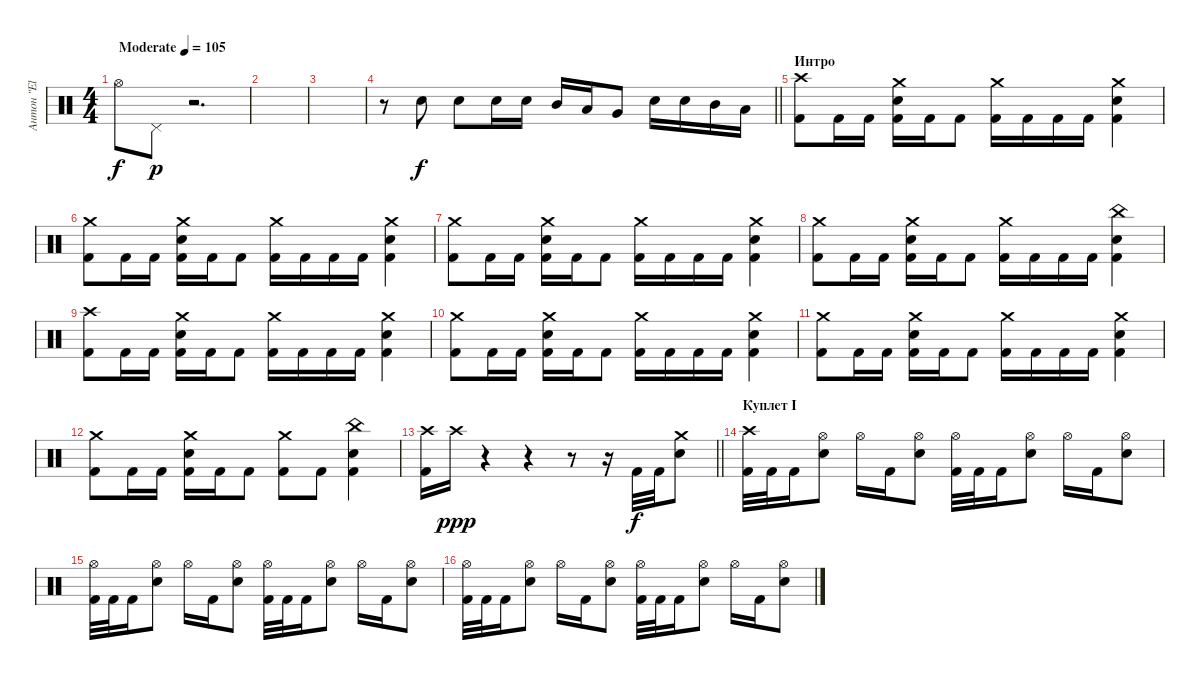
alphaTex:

\track ("Антон \"El Bastardo\" Смольянин" "Антон \"El ") {instrument percussion}
\staff {score}
\articulation defaults
\ts (4 4)
\tempo (105 "Moderate")
\clef neutral
\ks c "Hi-Hat (open)".8{dy f} "Pedal Hi-Hat (hit)".8{dy p}
r.2{d} |
|
|
\barLineRight lightlight
r.8 "Electric Snare (hit)".8{dy f} "Electric Snare (hit)".8 "Electric Snare (hit)".16 "Electric Snare (hit)".16 "Mid Tom (hit)".16 "Low Tom (hit)".16 "Very Low Tom (hit)".8 "Electric Snare (hit)".16 "Electric Snare (hit)".16 "Mid Tom (hit)".16 "Low Tom (hit)".16 |
\section ("" "Интро")
("Crash high (hit)" "Kick (hit) 2").8 "Kick (hit) 2".16 "Kick (hit) 2".16 ("Crash medium (hit)" "Electric Snare (hit)" "Kick (hit) 2").16 "Kick (hit) 2".16 "Kick (hit) 2".8 ("Crash medium (hit)" "Kick (hit) 2").16 "Kick (hit) 2".16 "Kick (hit) 2".16 "Kick (hit) 2".16 ("Crash medium (hit)" "Electric Snare (hit)" "Kick (hit) 2").4 |
("Crash medium (hit)" "Kick (hit) 2").8 "Kick (hit) 2".16 "Kick (hit) 2".16 ("Crash medium (hit)" "Electric Snare (hit)" "Kick (hit) 2").16 "Kick (hit) 2".16 "Kick (hit) 2".8 ("Crash medium (hit)" "Kick (hit) 2").16 "Kick (hit) 2".16 "Kick (hit) 2".16 "Kick (hit) 2".16 ("Crash medium (hit)" "Electric Snare (hit)" "Kick (hit) 2").4 |
("Crash medium (hit)" "Kick (hit) 2").8 "Kick (hit) 2".16 "Kick (hit) 2".16 ("Crash medium (hit)" "Electric Snare (hit)" "Kick (hit) 2").16 "Kick (hit) 2".16 "Kick (hit) 2".8 ("Crash medium (hit)" "Kick (hit) 2").16 "Kick (hit) 2".16 "Kick (hit) 2".16 "Kick (hit) 2".16 ("Crash medium (hit)" "Electric Snare (hit)" "Kick (hit) 2").4 |
("Crash medium (hit)" "Kick (hit) 2").8 "Kick (hit) 2".16 "Kick (hit) 2".16 ("Crash medium (hit)" "Electric Snare (hit)" "Kick (hit) 2").16 "Kick (hit) 2".16 "Kick (hit) 2".8 ("Crash medium (hit)" "Kick (hit) 2").16 "Kick (hit) 2".16 "Kick (hit) 2".16 "Kick (hit) 2".16 ("China (hit)" "Electric Snare (hit)" "Kick (hit) 2").4 |
("Crash high (hit)" "Kick (hit) 2").8 "Kick (hit) 2".16 "Kick (hit) 2".16 ("Crash medium (hit)" "Electric Snare (hit)" "Kick (hit) 2").16 "Kick (hit) 2".16 "Kick (hit) 2".8 ("Crash medium (hit)" "Kick (hit) 2").16 "Kick (hit) 2".16 "Kick (hit) 2".16 "Kick (hit) 2".16 ("Crash medium (hit)" "Electric Snare (hit)" "Kick (hit) 2").4 |
("Crash medium (hit)" "Kick (hit) 2").8 "Kick (hit) 2".16 "Kick (hit) 2".16 ("Crash medium (hit)" "Electric Snare (hit)" "Kick (hit) 2").16 "Kick (hit) 2".16 "Kick (hit) 2".8 ("Crash medium (hit)" "Kick (hit) 2").16 "Kick (hit) 2".16 "Kick (hit) 2".16 "Kick (hit) 2".16 ("Crash medium (hit)" "Electric Snare (hit)" "Kick (hit) 2").4 |
("Crash medium (hit)" "Kick (hit) 2").8 "Kick (hit) 2".16 "Kick (hit) 2".16 ("Crash medium (hit)" "Electric Snare (hit)" "Kick (hit) 2").16 "Kick (hit) 2".16 "Kick (hit) 2".8 ("Crash medium (hit)" "Kick (hit) 2").16 "Kick (hit) 2".16 "Kick (hit) 2".16 "Kick (hit) 2".16 ("Crash medium (hit)" "Electric Snare (hit)" "Kick (hit) 2").4 |
("Crash medium (hit)" "Kick (hit) 2").8 "Kick (hit) 2".16 "Kick (hit) 2".16 ("Crash medium (hit)" "Electric Snare (hit)" "Kick (hit) 2").16 "Kick (hit) 2".16 "Kick (hit) 2".8 ("Crash medium (hit)" "Kick (hit) 2").8 "Kick (hit) 2".8 ("China (hit)" "Electric Snare (hit)" "Kick (hit) 2").4 |
\barLineRight lightlight
("Crash high (hit)" "Kick (hit) 2").16 "Crash high (hit)".16{dy ppp} r.4 r.4 r.8 r.16 "Kick (hit) 2".32{dy f} "Kick (hit) 2".32 ("Crash medium (hit)" "Electric Snare (hit)").8 |
\section ("" "Куплет I")
("Crash high (hit)" "Kick (hit) 2").32 "Kick (hit) 2".32 "Kick (hit) 2".16 ("Hi-Hat (open)" "Electric Snare (hit)").8 "Hi-Hat (open)".16 "Kick (hit) 2".16 ("Hi-Hat (open)" "Electric Snare (hit)").8 ("Hi-Hat (open)" "Kick (hit) 2").32 "Kick (hit) 2".32 "Kick (hit) 2".16 ("Hi-Hat (open)" "Electric Snare (hit)").8 "Hi-Hat (open)".16 "Kick (hit) 2".16 ("Hi-Hat (open)" "Electric Snare (hit)").8 |
("Hi-Hat (open)" "Kick (hit) 2").32 "Kick (hit) 2".32 "Kick (hit) 2".16 ("Hi-Hat (open)" "Electric Snare (hit)").8 "Hi-Hat (open)".16 "Kick (hit) 2".16 ("Hi-Hat (open)" "Electric Snare (hit)").8 ("Hi-Hat (open)" "Kick (hit) 2").32 "Kick (hit) 2".32 "Kick (hit) 2".16 ("Hi-Hat (open)" "Electric Snare (hit)").8 "Hi-Hat (open)".16 "Kick (hit) 2".16 ("Hi-Hat (open)" "Electric Snare (hit)").8 |
("Hi-Hat (open)" "Kick (hit) 2").32 "Kick (hit) 2".32 "Kick (hit) 2".16 ("Hi-Hat (open)" "Electric Snare (hit)").8 "Hi-Hat (open)".16 "Kick (hit) 2".16 ("Hi-Hat (open)" "Electric Snare (hit)").8 ("Hi-Hat (open)" "Kick (hit) 2").32 "Kick (hit) 2".32 "Kick (hit) 2".16 ("Hi-Hat (open)" "Electric Snare (hit)").8 "Hi-Hat (open)".16 "Kick (hit) 2".16 ("Hi-Hat (open)" "Electric Snare (hit)").8
